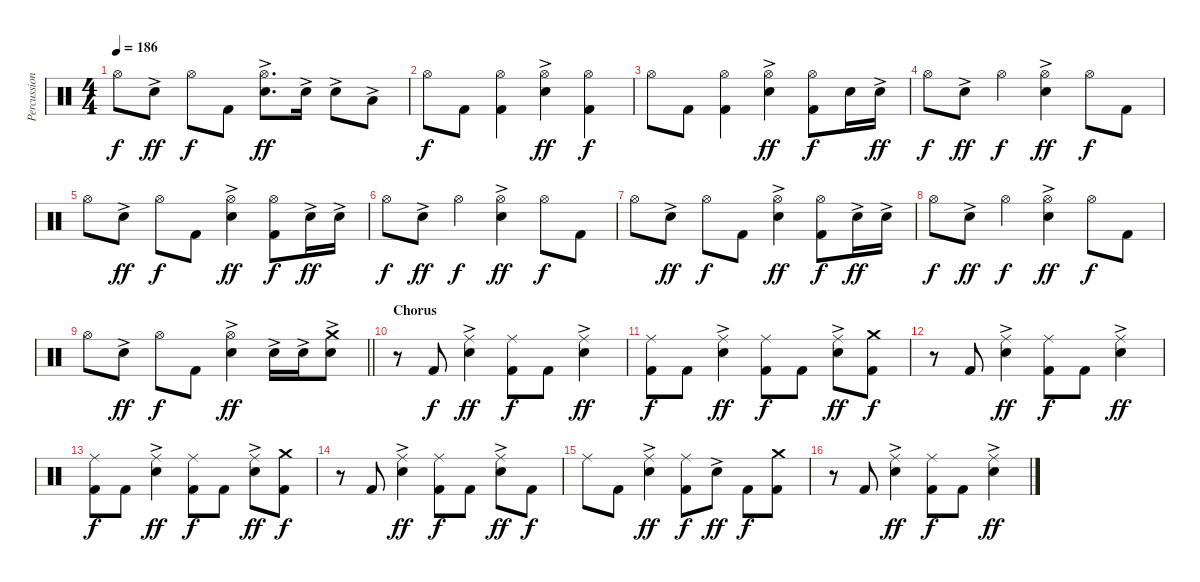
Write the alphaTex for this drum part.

\track ("Percussion" "Percussion") {instrument percussion}
\staff {score}
\articulation defaults
\ts (4 4)
\tempo 186
\clef neutral
\ks c "Hi-Hat (open)".8{dy f} "Electric Snare (hit)"{ac}.8{dy ff} "Hi-Hat (open)".8{dy f} "Kick (hit) 2".8
("Hi-Hat (open)" "Electric Snare (hit)"{ac}).8{d dy ff} "Electric Snare (hit)"{ac}.16 "Electric Snare (hit)"{ac}.8 "Low Tom (hit)"{ac}.8 |
"Hi-Hat (open)".8{dy f} "Kick (hit) 2".8 ("Hi-Hat (open)" "Kick (hit) 2").4 ("Hi-Hat (open)" "Electric Snare (hit)"{ac}).4{dy ff} ("Hi-Hat (open)" "Kick (hit) 2").4{dy f} |
"Hi-Hat (open)".8 "Kick (hit) 2".8 ("Hi-Hat (open)" "Kick (hit) 2").4 ("Hi-Hat (open)" "Electric Snare (hit)"{ac}).4{dy ff} ("Hi-Hat (open)" "Kick (hit) 2").8{dy f} "Electric Snare (hit)".16 "Electric Snare (hit)"{ac}.16{dy ff} |
"Hi-Hat (open)".8{dy f} "Electric Snare (hit)"{ac}.8{dy ff} "Hi-Hat (open)".4{dy f} ("Hi-Hat (open)" "Electric Snare (hit)"{ac}).4{dy ff} "Hi-Hat (open)".8{dy f} "Kick (hit) 2".8 |
"Hi-Hat (open)".8 "Electric Snare (hit)"{ac}.8{dy ff} "Hi-Hat (open)".8{dy f} "Kick (hit) 2".8 ("Hi-Hat (open)" "Electric Snare (hit)"{ac}).4{dy ff} ("Hi-Hat (open)" "Kick (hit) 2").8{dy f} "Electric Snare (hit)"{ac}.16{dy ff} "Electric Snare (hit)"{ac}.16 |
"Hi-Hat (open)".8{dy f} "Electric Snare (hit)"{ac}.8{dy ff} "Hi-Hat (open)".4{dy f} ("Hi-Hat (open)" "Electric Snare (hit)"{ac}).4{dy ff} "Hi-Hat (open)".8{dy f} "Kick (hit) 2".8 |
"Hi-Hat (open)".8 "Electric Snare (hit)"{ac}.8{dy ff} "Hi-Hat (open)".8{dy f} "Kick (hit) 2".8 ("Hi-Hat (open)" "Electric Snare (hit)"{ac}).4{dy ff} ("Hi-Hat (open)" "Kick (hit) 2").8{dy f} "Electric Snare (hit)"{ac}.16{dy ff} "Electric Snare (hit)"{ac}.16 |
"Hi-Hat (open)".8{dy f} "Electric Snare (hit)"{ac}.8{dy ff} "Hi-Hat (open)".4{dy f} ("Hi-Hat (open)" "Electric Snare (hit)"{ac}).4{dy ff} "Hi-Hat (open)".8{dy f} "Kick (hit) 2".8 |
\barLineRight lightlight "Hi-Hat (open)".8 "Electric Snare (hit)"{ac}.8{dy ff} "Hi-Hat (open)".8{dy f} "Kick (hit) 2".8
("Hi-Hat (open)" "Electric Snare (hit)"{ac}).4{dy ff} "Electric Snare (hit)"{ac}.16 "Electric Snare (hit)"{ac}.16 ("Crash medium (hit)" "Electric Snare (hit)"{ac}).8 |
\section ("" "Chorus")
r.8 "Kick (hit) 2".8{dy f} ("Ride (middle)" "Electric Snare (hit)"{ac}).4{dy ff} ("Ride (middle)" "Kick (hit) 2").8{dy f} "Kick (hit) 2".8 ("Ride (middle)" "Electric Snare (hit)"{ac}).4{dy ff} |
("Ride (middle)" "Kick (hit) 2").8{dy f} "Kick (hit) 2".8 ("Ride (middle)" "Electric Snare (hit)"{ac}).4{dy ff} ("Ride (middle)" "Kick (hit) 2").8{dy f} "Kick (hit) 2".8 ("Ride (middle)" "Electric Snare (hit)"{ac}).8{dy ff} ("Crash medium (hit)" "Kick (hit) 2").8{dy f} |
r.8 "Kick (hit) 2".8 ("Ride (middle)" "Electric Snare (hit)"{ac}).4{dy ff} ("Ride (middle)" "Kick (hit) 2").8{dy f} "Kick (hit) 2".8 ("Ride (middle)" "Electric Snare (hit)"{ac}).4{dy ff} |
("Ride (middle)" "Kick (hit) 2").8{dy f} "Kick (hit) 2".8 ("Ride (middle)" "Electric Snare (hit)"{ac}).4{dy ff} ("Ride (middle)" "Kick (hit) 2").8{dy f} "Kick (hit) 2".8 ("Ride (middle)" "Electric Snare (hit)"{ac}).8{dy ff} ("Crash medium (hit)" "Kick (hit) 2").8{dy f} |
r.8 "Kick (hit) 2".8 ("Ride (middle)" "Electric Snare (hit)"{ac}).4{dy ff} ("Ride (middle)" "Kick (hit) 2").8{dy f} "Kick (hit) 2".8 ("Ride (middle)" "Electric Snare (hit)"{ac}).8{dy ff} "Kick (hit) 2".8{dy f} |
"Ride (middle)".8 "Kick (hit) 2".8 ("Ride (middle)" "Electric Snare (hit)"{ac}).4{dy ff} ("Ride (middle)" "Kick (hit) 2").8{dy f} "Electric Snare (hit)"{ac}.8{dy ff} "Kick (hit) 2".8{dy f} ("Crash medium (hit)" "Kick (hit) 2").8 |
r.8 "Kick (hit) 2".8 ("Ride (middle)" "Electric Snare (hit)"{ac}).4{dy ff} ("Ride (middle)" "Kick (hit) 2").8{dy f} "Kick (hit) 2".8 ("Ride (middle)" "Electric Snare (hit)"{ac}).4{dy ff}
